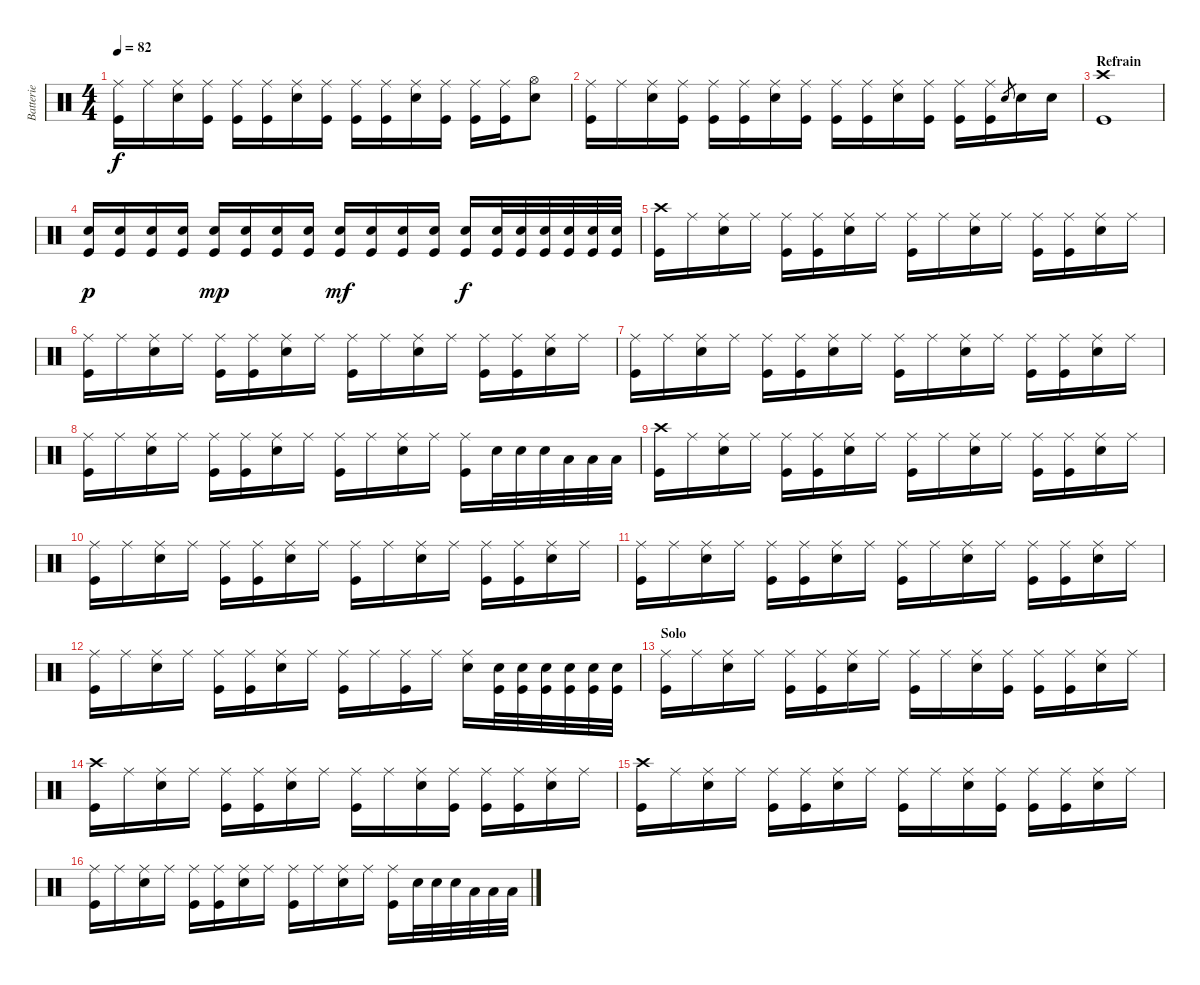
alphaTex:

\track ("Batterie" "Batterie") {instrument percussion}
\staff {score}
\articulation defaults
\ts (4 4)
\tempo 82
\clef neutral
\ks c
("Ride (middle)" "Kick (hit)").16{dy f} "Ride (middle)".16 ("Ride (middle)" "Snare (hit) 2").16 ("Ride (middle)" "Kick (hit)").16 ("Ride (middle)" "Kick (hit)").16 ("Ride (middle)" "Kick (hit)").16 ("Ride (middle)" "Snare (hit) 2").16 ("Ride (middle)" "Kick (hit)").16 ("Ride (middle)" "Kick (hit)").16 ("Ride (middle)" "Kick (hit)").16 ("Ride (middle)" "Snare (hit) 2").16 ("Ride (middle)" "Kick (hit)").16 ("Ride (middle)" "Kick (hit)").16 ("Ride (middle)" "Kick (hit)").16 ("Hi-Hat (open)" "Snare (hit) 2").8 |
("Ride (middle)" "Kick (hit)").16 "Ride (middle)".16 ("Ride (middle)" "Snare (hit) 2").16 ("Ride (middle)" "Kick (hit)").16 ("Ride (middle)" "Kick (hit)").16 ("Ride (middle)" "Kick (hit)").16 ("Ride (middle)" "Snare (hit) 2").16 ("Ride (middle)" "Kick (hit)").16 ("Ride (middle)" "Kick (hit)").16 ("Ride (middle)" "Kick (hit)").16 ("Ride (middle)" "Snare (hit) 2").16 ("Ride (middle)" "Kick (hit)").16 ("Ride (middle)" "Kick (hit)").16 ("Ride (middle)" "Kick (hit)").16 "Snare (hit) 2"{sl}.8{gr} "Snare (hit) 2".16 "Snare (hit) 2".16 |
\section ("" "Refrain")
("Crash high (hit)" "Kick (hit)").1 |
("Snare (hit) 2" "Kick (hit)").16{dy p} ("Snare (hit) 2" "Kick (hit)").16 ("Snare (hit) 2" "Kick (hit)").16 ("Snare (hit) 2" "Kick (hit)").16 ("Snare (hit) 2" "Kick (hit)").16{dy mp} ("Snare (hit) 2" "Kick (hit)").16 ("Snare (hit) 2" "Kick (hit)").16 ("Snare (hit) 2" "Kick (hit)").16 ("Snare (hit) 2" "Kick (hit)").16{dy mf} ("Snare (hit) 2" "Kick (hit)").16 ("Snare (hit) 2" "Kick (hit)").16 ("Snare (hit) 2" "Kick (hit)").16 ("Snare (hit) 2" "Kick (hit)").16{dy f} ("Snare (hit) 2" "Kick (hit)").32 ("Snare (hit) 2" "Kick (hit)").32 ("Snare (hit) 2" "Kick (hit)").32 ("Snare (hit) 2" "Kick (hit)").32 ("Snare (hit) 2" "Kick (hit)").32 ("Snare (hit) 2" "Kick (hit)").32 |
("Crash high (hit)" "Kick (hit)").16 "Ride (middle)".16 ("Ride (middle)" "Snare (hit) 2").16 "Ride (middle)".16 ("Ride (middle)" "Kick (hit)").16 ("Ride (middle)" "Kick (hit)").16 ("Ride (middle)" "Snare (hit) 2").16 "Ride (middle)".16 ("Ride (middle)" "Kick (hit)").16 "Ride (middle)".16 ("Ride (middle)" "Snare (hit) 2").16 "Ride (middle)".16 ("Ride (middle)" "Kick (hit)").16 ("Ride (middle)" "Kick (hit)").16 ("Ride (middle)" "Snare (hit) 2").16 "Ride (middle)".16 |
("Ride (middle)" "Kick (hit)").16 "Ride (middle)".16 ("Ride (middle)" "Snare (hit) 2").16 "Ride (middle)".16 ("Ride (middle)" "Kick (hit)").16 ("Ride (middle)" "Kick (hit)").16 ("Ride (middle)" "Snare (hit) 2").16 "Ride (middle)".16 ("Ride (middle)" "Kick (hit)").16 "Ride (middle)".16 ("Ride (middle)" "Snare (hit) 2").16 "Ride (middle)".16 ("Ride (middle)" "Kick (hit)").16 ("Ride (middle)" "Kick (hit)").16 ("Ride (middle)" "Snare (hit) 2").16 "Ride (middle)".16 |
("Ride (middle)" "Kick (hit)").16 "Ride (middle)".16 ("Ride (middle)" "Snare (hit) 2").16 "Ride (middle)".16 ("Ride (middle)" "Kick (hit)").16 ("Ride (middle)" "Kick (hit)").16 ("Ride (middle)" "Snare (hit) 2").16 "Ride (middle)".16 ("Ride (middle)" "Kick (hit)").16 "Ride (middle)".16 ("Ride (middle)" "Snare (hit) 2").16 "Ride (middle)".16 ("Ride (middle)" "Kick (hit)").16 ("Ride (middle)" "Kick (hit)").16 ("Ride (middle)" "Snare (hit) 2").16 "Ride (middle)".16 |
("Ride (middle)" "Kick (hit)").16 "Ride (middle)".16 ("Ride (middle)" "Snare (hit) 2").16 "Ride (middle)".16 ("Ride (middle)" "Kick (hit)").16 ("Ride (middle)" "Kick (hit)").16 ("Ride (middle)" "Snare (hit) 2").16 "Ride (middle)".16 ("Ride (middle)" "Kick (hit)").16 "Ride (middle)".16 ("Ride (middle)" "Snare (hit) 2").16 "Ride (middle)".16 ("Ride (middle)" "Kick (hit)").16 "Snare (hit) 2".32 "Snare (hit) 2".32 "Snare (hit) 2".32 "Low Tom (hit)".32 "Low Tom (hit)".32 "Low Tom (hit)".32 |
("Crash high (hit)" "Kick (hit)").16 "Ride (middle)".16 ("Ride (middle)" "Snare (hit) 2").16 "Ride (middle)".16 ("Ride (middle)" "Kick (hit)").16 ("Ride (middle)" "Kick (hit)").16 ("Ride (middle)" "Snare (hit) 2").16 "Ride (middle)".16 ("Ride (middle)" "Kick (hit)").16 "Ride (middle)".16 ("Ride (middle)" "Snare (hit) 2").16 "Ride (middle)".16 ("Ride (middle)" "Kick (hit)").16 ("Ride (middle)" "Kick (hit)").16 ("Ride (middle)" "Snare (hit) 2").16 "Ride (middle)".16 |
("Ride (middle)" "Kick (hit)").16 "Ride (middle)".16 ("Ride (middle)" "Snare (hit) 2").16 "Ride (middle)".16 ("Ride (middle)" "Kick (hit)").16 ("Ride (middle)" "Kick (hit)").16 ("Ride (middle)" "Snare (hit) 2").16 "Ride (middle)".16 ("Ride (middle)" "Kick (hit)").16 "Ride (middle)".16 ("Ride (middle)" "Snare (hit) 2").16 "Ride (middle)".16 ("Ride (middle)" "Kick (hit)").16 ("Ride (middle)" "Kick (hit)").16 ("Ride (middle)" "Snare (hit) 2").16 "Ride (middle)".16 |
("Ride (middle)" "Kick (hit)").16 "Ride (middle)".16 ("Ride (middle)" "Snare (hit) 2").16 "Ride (middle)".16 ("Ride (middle)" "Kick (hit)").16 ("Ride (middle)" "Kick (hit)").16 ("Ride (middle)" "Snare (hit) 2").16 "Ride (middle)".16 ("Ride (middle)" "Kick (hit)").16 "Ride (middle)".16 ("Ride (middle)" "Snare (hit) 2").16 "Ride (middle)".16 ("Ride (middle)" "Kick (hit)").16 ("Ride (middle)" "Kick (hit)").16 ("Ride (middle)" "Snare (hit) 2").16 "Ride (middle)".16 |
("Ride (middle)" "Kick (hit)").16 "Ride (middle)".16 ("Ride (middle)" "Snare (hit) 2").16 "Ride (middle)".16 ("Ride (middle)" "Kick (hit)").16 ("Ride (middle)" "Kick (hit)").16 ("Ride (middle)" "Snare (hit) 2").16 "Ride (middle)".16 ("Ride (middle)" "Kick (hit)").16 "Ride (middle)".16 ("Ride (middle)" "Kick (hit)").16 "Ride (middle)".16 ("Ride (middle)" "Snare (hit) 2").16 ("Snare (hit) 2" "Kick (hit)").32 ("Snare (hit) 2" "Kick (hit)").32 ("Snare (hit) 2" "Kick (hit)").32 ("Snare (hit) 2" "Kick (hit)").32 ("Snare (hit) 2" "Kick (hit)").32 ("Snare (hit) 2" "Kick (hit)").32 |
\section ("" "Solo")
("Ride (middle)" "Kick (hit)").16 "Ride (middle)".16 ("Ride (middle)" "Snare (hit) 2").16 "Ride (middle)".16 ("Ride (middle)" "Kick (hit)").16 ("Ride (middle)" "Kick (hit)").16 ("Ride (middle)" "Snare (hit) 2").16 "Ride (middle)".16 ("Ride (middle)" "Kick (hit)").16 "Ride (middle)".16 ("Ride (middle)" "Snare (hit) 2").16 ("Ride (middle)" "Kick (hit)").16 ("Ride (middle)" "Kick (hit)").16 ("Ride (middle)" "Kick (hit)").16 ("Ride (middle)" "Snare (hit) 2").16 "Ride (middle)".16 |
("Crash high (hit)" "Kick (hit)").16 "Ride (middle)".16 ("Ride (middle)" "Snare (hit) 2").16 "Ride (middle)".16 ("Ride (middle)" "Kick (hit)").16 ("Ride (middle)" "Kick (hit)").16 ("Ride (middle)" "Snare (hit) 2").16 "Ride (middle)".16 ("Ride (middle)" "Kick (hit)").16 "Ride (middle)".16 ("Ride (middle)" "Snare (hit) 2").16 ("Ride (middle)" "Kick (hit)").16 ("Ride (middle)" "Kick (hit)").16 ("Ride (middle)" "Kick (hit)").16 ("Ride (middle)" "Snare (hit) 2").16 "Ride (middle)".16 |
("Crash high (hit)" "Kick (hit)").16 "Ride (middle)".16 ("Ride (middle)" "Snare (hit) 2").16 "Ride (middle)".16 ("Ride (middle)" "Kick (hit)").16 ("Ride (middle)" "Kick (hit)").16 ("Ride (middle)" "Snare (hit) 2").16 "Ride (middle)".16 ("Ride (middle)" "Kick (hit)").16 "Ride (middle)".16 ("Ride (middle)" "Snare (hit) 2").16 ("Ride (middle)" "Kick (hit)").16 ("Ride (middle)" "Kick (hit)").16 ("Ride (middle)" "Kick (hit)").16 ("Ride (middle)" "Snare (hit) 2").16 "Ride (middle)".16 |
("Ride (middle)" "Kick (hit)").16 "Ride (middle)".16 ("Ride (middle)" "Snare (hit) 2").16 "Ride (middle)".16 ("Ride (middle)" "Kick (hit)").16 ("Ride (middle)" "Kick (hit)").16 ("Ride (middle)" "Snare (hit) 2").16 "Ride (middle)".16 ("Ride (middle)" "Kick (hit)").16 "Ride (middle)".16 ("Ride (middle)" "Snare (hit) 2").16 "Ride (middle)".16 ("Ride (middle)" "Kick (hit)").16 "Snare (hit) 2".32 "Snare (hit) 2".32 "Snare (hit) 2".32 "Low Tom (hit)".32 "Low Tom (hit)".32 "Low Tom (hit)".32
